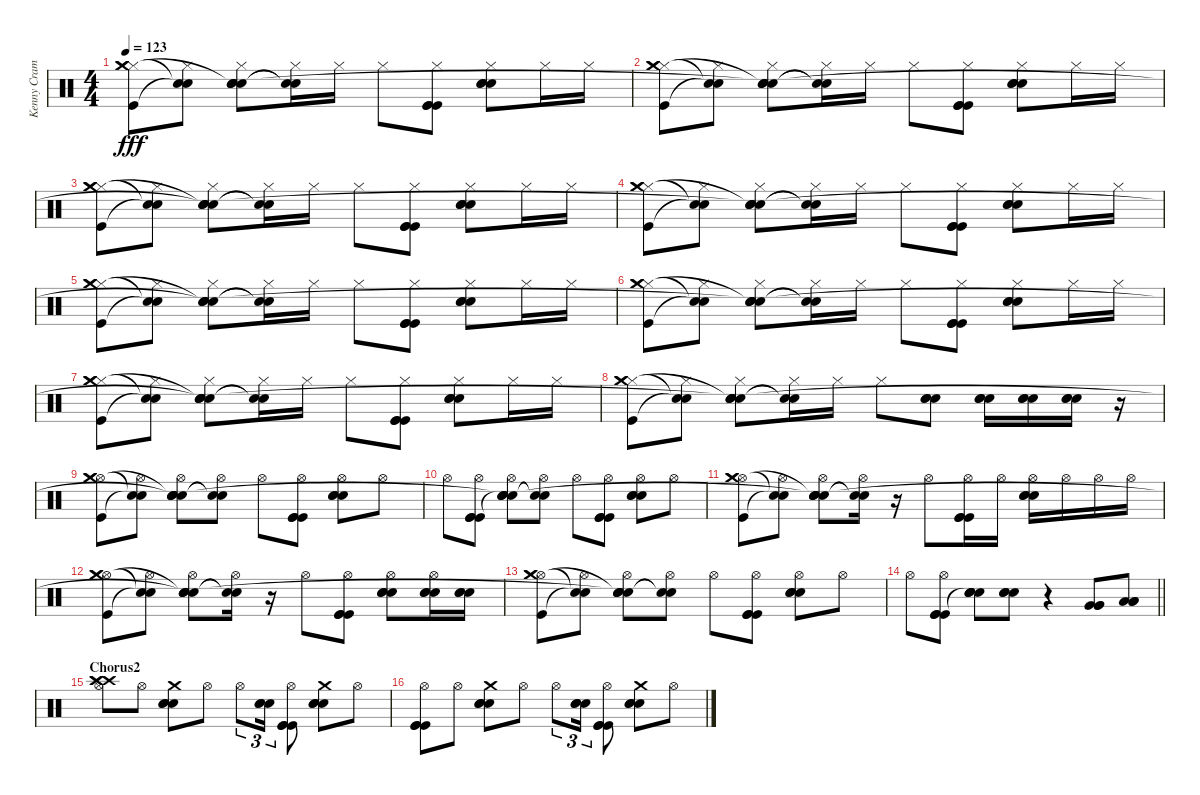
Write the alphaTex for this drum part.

\track ("Kenny Cramme - Drums" "Kenny Cram") {instrument percussion}
\staff {score}
\articulation defaults
\ts (4 4)
\tempo 123
\clef neutral
\ks c
("Hi-Hat (closed)" "Kick (hit)" "Crash medium (hit)" "Crash medium (hit)").8{dy fff} ("Hi-Hat (closed)" "Snare (hit)"{t} "Snare (hit)"{t}).8 ("Hi-Hat (closed)" "Snare (hit) 2" "Snare (hit) 2" "Snare (hit) 2"{t} "Snare (hit)"{t}).8 ("Hi-Hat (closed)" "Snare (hit)"{t} "Snare (hit)"{t}).16 "Hi-Hat (closed)".16 "Hi-Hat (closed)".8 ("Hi-Hat (closed)" "Kick (hit)" "Kick (hit)" "Kick (hit)").8 ("Hi-Hat (closed)" "Snare (hit) 2" "Snare (hit) 2" "Snare (hit) 2").8 "Hi-Hat (closed)".16 "Hi-Hat (closed)".16 |
("Hi-Hat (closed)" "Kick (hit)" "Crash medium (hit)" "Crash medium (hit)").8 ("Hi-Hat (closed)" "Snare (hit)"{t} "Snare (hit)"{t}).8 ("Hi-Hat (closed)" "Snare (hit) 2" "Snare (hit) 2" "Snare (hit) 2"{t} "Snare (hit)"{t}).8 ("Hi-Hat (closed)" "Snare (hit)"{t} "Snare (hit)"{t}).16 "Hi-Hat (closed)".16 "Hi-Hat (closed)".8 ("Hi-Hat (closed)" "Kick (hit)" "Kick (hit)" "Kick (hit)").8 ("Hi-Hat (closed)" "Snare (hit) 2" "Snare (hit) 2" "Snare (hit) 2").8 "Hi-Hat (closed)".16 "Hi-Hat (closed)".16 |
("Hi-Hat (closed)" "Kick (hit)" "Crash medium (hit)" "Crash medium (hit)").8 ("Hi-Hat (closed)" "Snare (hit)"{t} "Snare (hit)"{t}).8 ("Hi-Hat (closed)" "Snare (hit) 2" "Snare (hit) 2" "Snare (hit) 2"{t} "Snare (hit)"{t}).8 ("Hi-Hat (closed)" "Snare (hit)"{t} "Snare (hit)"{t}).16 "Hi-Hat (closed)".16 "Hi-Hat (closed)".8 ("Hi-Hat (closed)" "Kick (hit)" "Kick (hit)" "Kick (hit)").8 ("Hi-Hat (closed)" "Snare (hit) 2" "Snare (hit) 2" "Snare (hit) 2").8 "Hi-Hat (closed)".16 "Hi-Hat (closed)".16 |
("Hi-Hat (closed)" "Kick (hit)" "Crash medium (hit)" "Crash medium (hit)").8 ("Hi-Hat (closed)" "Snare (hit)"{t} "Snare (hit)"{t}).8 ("Hi-Hat (closed)" "Snare (hit) 2" "Snare (hit) 2" "Snare (hit) 2"{t} "Snare (hit)"{t}).8 ("Hi-Hat (closed)" "Snare (hit)"{t} "Snare (hit)"{t}).16 "Hi-Hat (closed)".16 "Hi-Hat (closed)".8 ("Hi-Hat (closed)" "Kick (hit)" "Kick (hit)" "Kick (hit)").8 ("Hi-Hat (closed)" "Snare (hit) 2" "Snare (hit) 2" "Snare (hit) 2").8 "Hi-Hat (closed)".16 "Hi-Hat (closed)".16 |
("Hi-Hat (closed)" "Kick (hit)" "Crash medium (hit)" "Crash medium (hit)").8 ("Hi-Hat (closed)" "Snare (hit)"{t} "Snare (hit)"{t}).8 ("Hi-Hat (closed)" "Snare (hit) 2" "Snare (hit) 2" "Snare (hit) 2"{t} "Snare (hit)"{t}).8 ("Hi-Hat (closed)" "Snare (hit)"{t} "Snare (hit)"{t}).16 "Hi-Hat (closed)".16 "Hi-Hat (closed)".8 ("Hi-Hat (closed)" "Kick (hit)" "Kick (hit)" "Kick (hit)").8 ("Hi-Hat (closed)" "Snare (hit) 2" "Snare (hit) 2" "Snare (hit) 2").8 "Hi-Hat (closed)".16 "Hi-Hat (closed)".16 |
("Hi-Hat (closed)" "Kick (hit)" "Crash medium (hit)" "Crash medium (hit)").8 ("Hi-Hat (closed)" "Snare (hit)"{t} "Snare (hit)"{t}).8 ("Hi-Hat (closed)" "Snare (hit) 2" "Snare (hit) 2" "Snare (hit) 2"{t} "Snare (hit)"{t}).8 ("Hi-Hat (closed)" "Snare (hit)"{t} "Snare (hit)"{t}).16 "Hi-Hat (closed)".16 "Hi-Hat (closed)".8 ("Hi-Hat (closed)" "Kick (hit)" "Kick (hit)" "Kick (hit)").8 ("Hi-Hat (closed)" "Snare (hit) 2" "Snare (hit) 2" "Snare (hit) 2").8 "Hi-Hat (closed)".16 "Hi-Hat (closed)".16 |
("Hi-Hat (closed)" "Kick (hit)" "Crash medium (hit)" "Crash medium (hit)").8 ("Hi-Hat (closed)" "Snare (hit)"{t} "Snare (hit)"{t}).8 ("Hi-Hat (closed)" "Snare (hit) 2" "Snare (hit) 2" "Snare (hit) 2"{t} "Snare (hit)"{t}).8 ("Hi-Hat (closed)" "Snare (hit)"{t} "Snare (hit)"{t}).16 "Hi-Hat (closed)".16 "Hi-Hat (closed)".8 ("Hi-Hat (closed)" "Kick (hit)" "Kick (hit)" "Kick (hit)").8 ("Hi-Hat (closed)" "Snare (hit) 2" "Snare (hit) 2" "Snare (hit) 2").8 "Hi-Hat (closed)".16 "Hi-Hat (closed)".16 |
("Hi-Hat (closed)" "Kick (hit)" "Crash medium (hit)" "Crash medium (hit)").8 ("Hi-Hat (closed)" "Snare (hit)"{t} "Snare (hit)"{t}).8 ("Hi-Hat (closed)" "Snare (hit) 2" "Snare (hit) 2" "Snare (hit) 2"{t} "Snare (hit)"{t}).8 ("Hi-Hat (closed)" "Snare (hit)"{t} "Snare (hit)"{t}).16 "Hi-Hat (closed)".16 "Hi-Hat (closed)".8 ("Snare (hit) 2" "Snare (hit) 2" "Snare (hit) 2").8 ("Snare (hit) 2" "Snare (hit) 2" "Snare (hit) 2").16 ("Snare (hit) 2" "Snare (hit) 2" "Snare (hit) 2").16 ("Snare (hit) 2" "Snare (hit) 2" "Snare (hit) 2").16 r.16 |
("Hi-Hat (open)" "Kick (hit)" "Crash medium (hit)" "Crash medium (hit)").8 ("Hi-Hat (open)" "Snare (hit)"{t} "Snare (hit)"{t}).8 ("Hi-Hat (open)" "Snare (hit) 2" "Snare (hit) 2" "Snare (hit) 2"{t} "Snare (hit)"{t}).8 ("Hi-Hat (open)" "Snare (hit)"{t} "Snare (hit)"{t}).8 "Hi-Hat (open)".8 ("Hi-Hat (open)" "Kick (hit)" "Kick (hit)" "Kick (hit)").8 ("Hi-Hat (open)" "Snare (hit) 2" "Snare (hit) 2" "Snare (hit) 2").8 "Hi-Hat (open)".8 |
"Hi-Hat (open)".8 ("Hi-Hat (open)" "Kick (hit)" "Kick (hit)" "Kick (hit)").8 ("Hi-Hat (open)" "Snare (hit) 2" "Snare (hit) 2" "Snare (hit) 2"{t} "Snare (hit)"{t}).8 ("Hi-Hat (open)" "Snare (hit)"{t} "Snare (hit)"{t}).8 "Hi-Hat (open)".8 ("Hi-Hat (open)" "Kick (hit)" "Kick (hit)" "Kick (hit)").8 ("Hi-Hat (open)" "Snare (hit) 2" "Snare (hit) 2" "Snare (hit) 2").8 "Hi-Hat (open)".8 |
("Hi-Hat (open)" "Kick (hit)" "Crash medium (hit)" "Crash medium (hit)").8 ("Hi-Hat (open)" "Snare (hit)"{t} "Snare (hit)"{t}).8 ("Hi-Hat (open)" "Snare (hit) 2" "Snare (hit) 2" "Snare (hit) 2"{t} "Snare (hit)"{t}).8 ("Hi-Hat (open)" "Snare (hit)"{t} "Snare (hit)"{t}).16 r.16 "Hi-Hat (open)".8 ("Hi-Hat (open)" "Kick (hit)" "Kick (hit)" "Kick (hit)").16 "Hi-Hat (open)".16 ("Hi-Hat (open)" "Snare (hit) 2" "Snare (hit) 2" "Snare (hit) 2").16 "Hi-Hat (open)".16 "Hi-Hat (open)".16 "Hi-Hat (open)".16 |
("Hi-Hat (open)" "Kick (hit)" "Crash medium (hit)" "Crash medium (hit)").8 ("Hi-Hat (open)" "Snare (hit)"{t} "Snare (hit)"{t}).8 ("Hi-Hat (open)" "Snare (hit) 2" "Snare (hit) 2" "Snare (hit) 2"{t} "Snare (hit)"{t}).8 ("Hi-Hat (open)" "Snare (hit)"{t} "Snare (hit)"{t}).16 r.16 "Hi-Hat (open)".8 ("Hi-Hat (open)" "Kick (hit)" "Kick (hit)" "Kick (hit)").8 ("Hi-Hat (open)" "Snare (hit) 2" "Snare (hit) 2" "Snare (hit) 2").8 ("Hi-Hat (open)" "Snare (hit) 2" "Snare (hit) 2" "Snare (hit) 2").16 ("Snare (hit) 2" "Snare (hit) 2" "Snare (hit) 2").16 |
("Hi-Hat (open)" "Kick (hit)" "Crash medium (hit)" "Crash medium (hit)").8 ("Hi-Hat (open)" "Snare (hit)"{t} "Snare (hit)"{t}).8 ("Hi-Hat (open)" "Snare (hit) 2" "Snare (hit) 2" "Snare (hit) 2"{t} "Snare (hit)"{t}).8 ("Hi-Hat (open)" "Snare (hit)"{t} "Snare (hit)"{t}).8 "Hi-Hat (open)".8 ("Hi-Hat (open)" "Kick (hit)" "Kick (hit)" "Kick (hit)").8 ("Hi-Hat (open)" "Snare (hit) 2" "Snare (hit) 2" "Snare (hit) 2").8 "Hi-Hat (open)".8 |
\barLineRight lightlight "Hi-Hat (open)".8
("Hi-Hat (open)" "Kick (hit)" "Kick (hit)" "Kick (hit)").8 ("Snare (hit) 2" "Snare (hit) 2" "Snare (hit) 2" "Snare (hit)"{t}).8 ("Snare (hit) 2" "Snare (hit) 2" "Snare (hit) 2").8 r.4 ("Very Low Tom (hit)" "Very Low Tom (hit)" "Very Low Tom (hit)").8 ("Low Floor Tom (hit)" "Low Floor Tom (hit)" "Low Floor Tom (hit)").8 |
\section ("" "Chorus2")
("Hi-Hat (open)" "Crash high (hit)" "Crash high (hit)" "Crash high (hit)").8 "Hi-Hat (open)".8 ("Crash medium (hit)" "Snare (hit) 2" "Snare (hit) 2" "Snare (hit) 2").8 "Hi-Hat (open)".8 "Hi-Hat (open)".8{tu (3 2)} ("Snare (hit) 2" "Snare (hit) 2" "Snare (hit) 2").16{tu (3 2)} ("Hi-Hat (open)" "Kick (hit)" "Kick (hit)" "Kick (hit)").8 ("Crash medium (hit)" "Snare (hit) 2" "Snare (hit) 2" "Snare (hit) 2").8 "Hi-Hat (open)".8 |
("Hi-Hat (open)" "Kick (hit)" "Kick (hit)" "Kick (hit)").8 "Hi-Hat (open)".8 ("Crash medium (hit)" "Snare (hit) 2" "Snare (hit) 2" "Snare (hit) 2").8 "Hi-Hat (open)".8 "Hi-Hat (open)".8{tu (3 2)} ("Snare (hit) 2" "Snare (hit) 2" "Snare (hit) 2").16{tu (3 2)} ("Hi-Hat (open)" "Kick (hit)" "Kick (hit)" "Kick (hit)").8 ("Crash medium (hit)" "Snare (hit) 2" "Snare (hit) 2" "Snare (hit) 2").8 "Hi-Hat (open)".8
